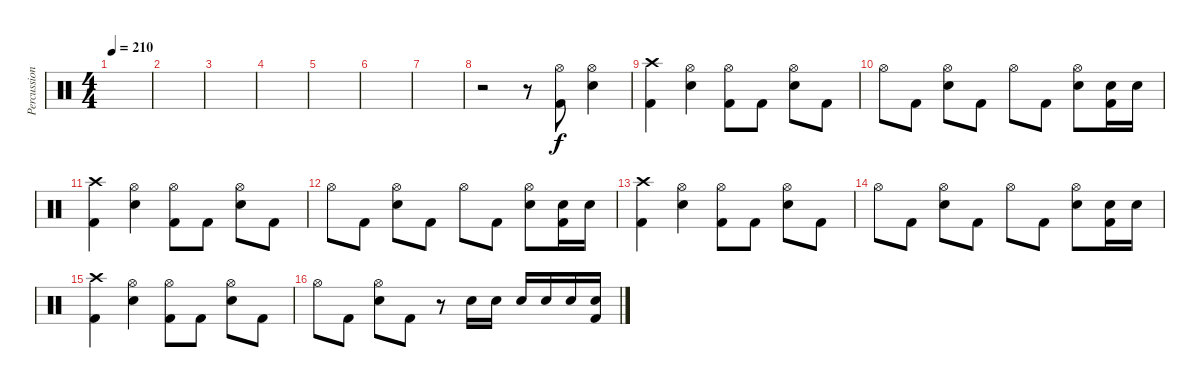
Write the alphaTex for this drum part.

\track ("Percussions" "Percussion") {instrument percussion}
\staff {score}
\articulation defaults
\ts (4 4)
\tempo 210
\clef neutral
\ks c
|
|
|
|
|
|
|
r.2 r.8 ("Kick (hit) 2" "Hi-Hat (open)").8 ("Snare (hit) 2" "Hi-Hat (open)").4 |
("Kick (hit) 2" "Crash high (hit)").4 ("Snare (hit) 2" "Hi-Hat (open)").4 ("Kick (hit) 2" "Hi-Hat (open)").8 "Kick (hit) 2".8 ("Snare (hit) 2" "Hi-Hat (open)").8 "Kick (hit) 2".8 |
"Hi-Hat (open)".8 "Kick (hit) 2".8 ("Snare (hit) 2" "Hi-Hat (open)").8 "Kick (hit) 2".8 "Hi-Hat (open)".8 "Kick (hit) 2".8 ("Snare (hit) 2" "Hi-Hat (open)").8 ("Kick (hit) 2" "Snare (hit) 2").16 "Snare (hit) 2".16 |
("Kick (hit) 2" "Crash high (hit)").4 ("Snare (hit) 2" "Hi-Hat (open)").4 ("Kick (hit) 2" "Hi-Hat (open)").8 "Kick (hit) 2".8 ("Snare (hit) 2" "Hi-Hat (open)").8 "Kick (hit) 2".8 |
"Hi-Hat (open)".8 "Kick (hit) 2".8 ("Snare (hit) 2" "Hi-Hat (open)").8 "Kick (hit) 2".8 "Hi-Hat (open)".8 "Kick (hit) 2".8 ("Snare (hit) 2" "Hi-Hat (open)").8 ("Kick (hit) 2" "Snare (hit) 2").16 "Snare (hit) 2".16 |
("Kick (hit) 2" "Crash high (hit)").4 ("Snare (hit) 2" "Hi-Hat (open)").4 ("Kick (hit) 2" "Hi-Hat (open)").8 "Kick (hit) 2".8 ("Snare (hit) 2" "Hi-Hat (open)").8 "Kick (hit) 2".8 |
"Hi-Hat (open)".8 "Kick (hit) 2".8 ("Snare (hit) 2" "Hi-Hat (open)").8 "Kick (hit) 2".8 "Hi-Hat (open)".8 "Kick (hit) 2".8 ("Snare (hit) 2" "Hi-Hat (open)").8 ("Kick (hit) 2" "Snare (hit) 2").16 "Snare (hit) 2".16 |
("Kick (hit) 2" "Crash high (hit)").4 ("Snare (hit) 2" "Hi-Hat (open)").4 ("Kick (hit) 2" "Hi-Hat (open)").8 "Kick (hit) 2".8 ("Snare (hit) 2" "Hi-Hat (open)").8 "Kick (hit) 2".8 |
"Hi-Hat (open)".8 "Kick (hit) 2".8 ("Snare (hit) 2" "Hi-Hat (open)").8 "Kick (hit) 2".8 r.8 "Snare (hit) 2".16 "Snare (hit) 2".16 "Snare (hit) 2".16 "Snare (hit) 2".16 "Snare (hit) 2".16 ("Kick (hit) 2" "Snare (hit) 2").16
